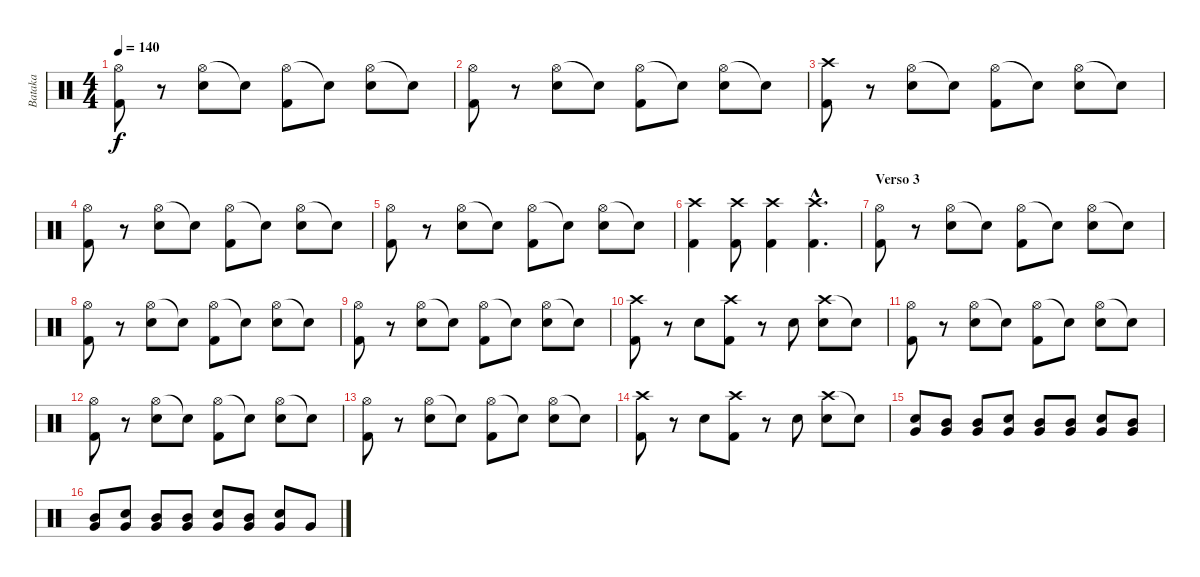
\track ("Bataka" "Bataka") {instrument percussion}
\staff {score}
\articulation defaults
\ts (4 4)
\tempo 140
\clef neutral
\ks c
("Hi-Hat (open)" "Kick (hit) 2").8{dy f} r.8 ("Hi-Hat (open)" "Snare (hit) 2").8 "Snare (hit)"{t}.8 ("Hi-Hat (open)" "Kick (hit) 2").8 "Snare (hit)"{t}.8 ("Hi-Hat (open)" "Snare (hit) 2").8 "Snare (hit)"{t}.8 |
("Hi-Hat (open)" "Kick (hit) 2").8 r.8 ("Hi-Hat (open)" "Snare (hit) 2").8 "Snare (hit)"{t}.8 ("Hi-Hat (open)" "Kick (hit) 2").8 "Snare (hit)"{t}.8 ("Hi-Hat (open)" "Snare (hit) 2").8 "Snare (hit)"{t}.8 |
("Crash high (hit)" "Kick (hit) 2").8 r.8 ("Hi-Hat (open)" "Snare (hit) 2").8 "Snare (hit)"{t}.8 ("Hi-Hat (open)" "Kick (hit) 2").8 "Snare (hit)"{t}.8 ("Hi-Hat (open)" "Snare (hit) 2").8 "Snare (hit)"{t}.8 |
("Hi-Hat (open)" "Kick (hit) 2").8 r.8 ("Hi-Hat (open)" "Snare (hit) 2").8 "Snare (hit)"{t}.8 ("Hi-Hat (open)" "Kick (hit) 2").8 "Snare (hit)"{t}.8 ("Hi-Hat (open)" "Snare (hit) 2").8 "Snare (hit)"{t}.8 |
("Hi-Hat (open)" "Kick (hit) 2").8 r.8 ("Hi-Hat (open)" "Snare (hit) 2").8 "Snare (hit)"{t}.8 ("Hi-Hat (open)" "Kick (hit) 2").8 "Snare (hit)"{t}.8 ("Hi-Hat (open)" "Snare (hit) 2").8 "Snare (hit)"{t}.8 |
("Crash high (hit)" "Kick (hit) 2").4 ("Crash high (hit)" "Kick (hit) 2").8 ("Crash high (hit)" "Kick (hit) 2").4 ("Crash high (hit)"{hac} "Kick (hit) 2"{hac}).4{d} |
\section ("" "Verso 3")
("Hi-Hat (open)" "Kick (hit) 2").8 r.8 ("Hi-Hat (open)" "Snare (hit) 2").8 "Snare (hit)"{t}.8 ("Hi-Hat (open)" "Kick (hit) 2").8 "Snare (hit)"{t}.8 ("Hi-Hat (open)" "Snare (hit) 2").8 "Snare (hit)"{t}.8 |
("Hi-Hat (open)" "Kick (hit) 2").8 r.8 ("Hi-Hat (open)" "Snare (hit) 2").8 "Snare (hit)"{t}.8 ("Hi-Hat (open)" "Kick (hit) 2").8 "Snare (hit)"{t}.8 ("Hi-Hat (open)" "Snare (hit) 2").8 "Snare (hit)"{t}.8 |
("Hi-Hat (open)" "Kick (hit) 2").8 r.8 ("Hi-Hat (open)" "Snare (hit) 2").8 "Snare (hit)"{t}.8 ("Hi-Hat (open)" "Kick (hit) 2").8 "Snare (hit)"{t}.8 ("Hi-Hat (open)" "Snare (hit) 2").8 "Snare (hit)"{t}.8 |
("Crash high (hit)" "Kick (hit) 2").8 r.8 "Snare (hit) 2".8 ("Crash high (hit)" "Kick (hit) 2").8 r.8 "Snare (hit) 2".8 ("Crash high (hit)" "Snare (hit) 2").8 "Snare (hit)"{t}.8 |
("Hi-Hat (open)" "Kick (hit) 2").8 r.8 ("Hi-Hat (open)" "Snare (hit) 2").8 "Snare (hit)"{t}.8 ("Hi-Hat (open)" "Kick (hit) 2").8 "Snare (hit)"{t}.8 ("Hi-Hat (open)" "Snare (hit) 2").8 "Snare (hit)"{t}.8 |
("Hi-Hat (open)" "Kick (hit) 2").8 r.8 ("Hi-Hat (open)" "Snare (hit) 2").8 "Snare (hit)"{t}.8 ("Hi-Hat (open)" "Kick (hit) 2").8 "Snare (hit)"{t}.8 ("Hi-Hat (open)" "Snare (hit) 2").8 "Snare (hit)"{t}.8 |
("Hi-Hat (open)" "Kick (hit) 2").8 r.8 ("Hi-Hat (open)" "Snare (hit) 2").8 "Snare (hit)"{t}.8 ("Hi-Hat (open)" "Kick (hit) 2").8 "Snare (hit)"{t}.8 ("Hi-Hat (open)" "Snare (hit) 2").8 "Snare (hit)"{t}.8 |
("Crash high (hit)" "Kick (hit) 2").8 r.8 "Snare (hit) 2".8 ("Crash high (hit)" "Kick (hit) 2").8 r.8 "Snare (hit) 2".8 ("Crash high (hit)" "Snare (hit) 2").8 "Snare (hit)"{t}.8 |
("Snare (hit) 2" "Very Low Tom (hit)").8 ("Mid Tom (hit)" "Very Low Tom (hit)").8 ("Mid Tom (hit)" "Very Low Tom (hit)").8 ("Snare (hit) 2" "Very Low Tom (hit)").8 ("Mid Tom (hit)" "Very Low Tom (hit)").8 ("Mid Tom (hit)" "Very Low Tom (hit)").8 ("Snare (hit) 2" "Very Low Tom (hit)").8 ("Mid Tom (hit)" "Very Low Tom (hit)").8 |
("Mid Tom (hit)" "Very Low Tom (hit)").8 ("Snare (hit) 2" "Very Low Tom (hit)").8 ("Mid Tom (hit)" "Very Low Tom (hit)").8 ("Mid Tom (hit)" "Very Low Tom (hit)").8 ("Snare (hit) 2" "Very Low Tom (hit)").8 ("Mid Tom (hit)" "Very Low Tom (hit)").8 ("Snare (hit) 2" "Very Low Tom (hit)").8 "Very Low Tom (hit)".8
